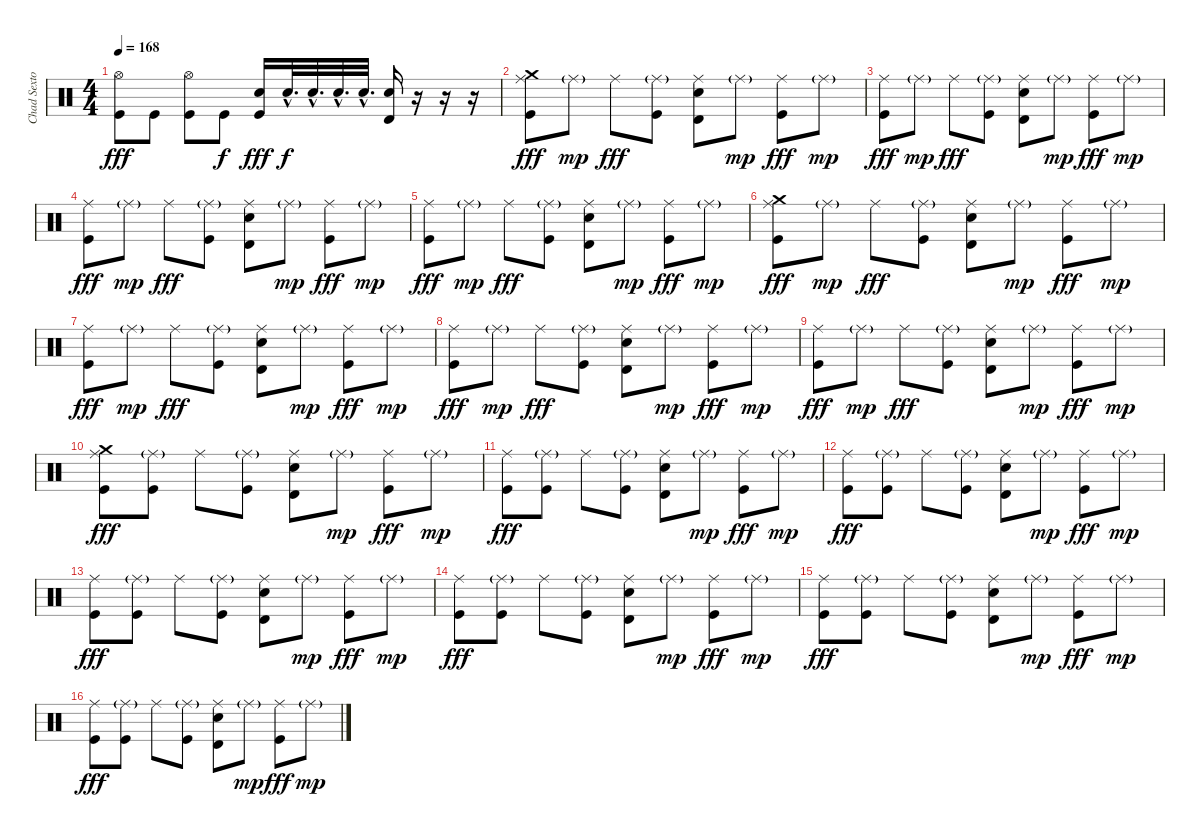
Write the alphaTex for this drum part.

\track ("Chad Sexton" "Chad Sexto") {instrument percussion}
\staff {score}
\articulation defaults
\ts (4 4)
\tempo 168
\clef neutral
\ks c
("Hi-Hat (open)" "Kick (hit)").8{dy fff} "Kick (hit)".8 ("Hi-Hat (open)" "Kick (hit)").8 "Kick (hit)".8{dy f} ("Electric Snare (hit)" "Kick (hit)").16{dy fff} "Electric Snare (hit)"{hac}.32{d dy f} "Electric Snare (hit)"{hac}.32{d} "Electric Snare (hit)"{hac}.32{d} "Electric Snare (hit)"{hac}.32{d} ("Electric Snare (hit)" "Timbale high (hit)").16 r.16 r.16 r.16 |
("Crash medium (hit)" "Ride (middle)" "Kick (hit)").8{dy fff} "Ride (middle)"{g}.8{dy mp} "Ride (middle)".8{dy fff} ("Ride (middle)"{g} "Kick (hit)").8 ("Ride (middle)" "Electric Snare (hit)" "Timbale high (hit)").8 "Ride (middle)"{g}.8{dy mp} ("Ride (middle)" "Kick (hit)").8{dy fff} "Ride (middle)"{g}.8{dy mp} |
("Ride (middle)" "Kick (hit)").8{dy fff} "Ride (middle)"{g}.8{dy mp} "Ride (middle)".8{dy fff} ("Ride (middle)"{g} "Kick (hit)").8 ("Ride (middle)" "Electric Snare (hit)" "Timbale high (hit)").8 "Ride (middle)"{g}.8{dy mp} ("Ride (middle)" "Kick (hit)").8{dy fff} "Ride (middle)"{g}.8{dy mp} |
("Ride (middle)" "Kick (hit)").8{dy fff} "Ride (middle)"{g}.8{dy mp} "Ride (middle)".8{dy fff} ("Ride (middle)"{g} "Kick (hit)").8 ("Ride (middle)" "Electric Snare (hit)" "Timbale high (hit)").8 "Ride (middle)"{g}.8{dy mp} ("Ride (middle)" "Kick (hit)").8{dy fff} "Ride (middle)"{g}.8{dy mp} |
("Ride (middle)" "Kick (hit)").8{dy fff} "Ride (middle)"{g}.8{dy mp} "Ride (middle)".8{dy fff} ("Ride (middle)"{g} "Kick (hit)").8 ("Ride (middle)" "Electric Snare (hit)" "Timbale high (hit)").8 "Ride (middle)"{g}.8{dy mp} ("Ride (middle)" "Kick (hit)").8{dy fff} "Ride (middle)"{g}.8{dy mp} |
("Crash medium (hit)" "Ride (middle)" "Kick (hit)").8{dy fff} "Ride (middle)"{g}.8{dy mp} "Ride (middle)".8{dy fff} ("Ride (middle)"{g} "Kick (hit)").8 ("Ride (middle)" "Electric Snare (hit)" "Timbale high (hit)").8 "Ride (middle)"{g}.8{dy mp} ("Ride (middle)" "Kick (hit)").8{dy fff} "Ride (middle)"{g}.8{dy mp} |
("Ride (middle)" "Kick (hit)").8{dy fff} "Ride (middle)"{g}.8{dy mp} "Ride (middle)".8{dy fff} ("Ride (middle)"{g} "Kick (hit)").8 ("Ride (middle)" "Electric Snare (hit)" "Timbale high (hit)").8 "Ride (middle)"{g}.8{dy mp} ("Ride (middle)" "Kick (hit)").8{dy fff} "Ride (middle)"{g}.8{dy mp} |
("Ride (middle)" "Kick (hit)").8{dy fff} "Ride (middle)"{g}.8{dy mp} "Ride (middle)".8{dy fff} ("Ride (middle)"{g} "Kick (hit)").8 ("Ride (middle)" "Electric Snare (hit)" "Timbale high (hit)").8 "Ride (middle)"{g}.8{dy mp} ("Ride (middle)" "Kick (hit)").8{dy fff} "Ride (middle)"{g}.8{dy mp} |
("Ride (middle)" "Kick (hit)").8{dy fff} "Ride (middle)"{g}.8{dy mp} "Ride (middle)".8{dy fff} ("Ride (middle)"{g} "Kick (hit)").8 ("Ride (middle)" "Electric Snare (hit)" "Timbale high (hit)").8 "Ride (middle)"{g}.8{dy mp} ("Ride (middle)" "Kick (hit)").8{dy fff} "Ride (middle)"{g}.8{dy mp} |
("Crash medium (hit)" "Ride (middle)" "Kick (hit)").8{dy fff} ("Ride (middle)"{g} "Kick (hit)").8 "Ride (middle)".8 ("Ride (middle)"{g} "Kick (hit)").8 ("Ride (middle)" "Electric Snare (hit)" "Timbale high (hit)").8 "Ride (middle)"{g}.8{dy mp} ("Ride (middle)" "Kick (hit)").8{dy fff} "Ride (middle)"{g}.8{dy mp} |
("Ride (middle)" "Kick (hit)").8{dy fff} ("Ride (middle)"{g} "Kick (hit)").8 "Ride (middle)".8 ("Ride (middle)"{g} "Kick (hit)").8 ("Ride (middle)" "Electric Snare (hit)" "Timbale high (hit)").8 "Ride (middle)"{g}.8{dy mp} ("Ride (middle)" "Kick (hit)").8{dy fff} "Ride (middle)"{g}.8{dy mp} |
("Ride (middle)" "Kick (hit)").8{dy fff} ("Ride (middle)"{g} "Kick (hit)").8 "Ride (middle)".8 ("Ride (middle)"{g} "Kick (hit)").8 ("Ride (middle)" "Electric Snare (hit)" "Timbale high (hit)").8 "Ride (middle)"{g}.8{dy mp} ("Ride (middle)" "Kick (hit)").8{dy fff} "Ride (middle)"{g}.8{dy mp} |
("Ride (middle)" "Kick (hit)").8{dy fff} ("Ride (middle)"{g} "Kick (hit)").8 "Ride (middle)".8 ("Ride (middle)"{g} "Kick (hit)").8 ("Ride (middle)" "Electric Snare (hit)" "Timbale high (hit)").8 "Ride (middle)"{g}.8{dy mp} ("Ride (middle)" "Kick (hit)").8{dy fff} "Ride (middle)"{g}.8{dy mp} |
("Ride (middle)" "Kick (hit)").8{dy fff} ("Ride (middle)"{g} "Kick (hit)").8 "Ride (middle)".8 ("Ride (middle)"{g} "Kick (hit)").8 ("Ride (middle)" "Electric Snare (hit)" "Timbale high (hit)").8 "Ride (middle)"{g}.8{dy mp} ("Ride (middle)" "Kick (hit)").8{dy fff} "Ride (middle)"{g}.8{dy mp} |
("Ride (middle)" "Kick (hit)").8{dy fff} ("Ride (middle)"{g} "Kick (hit)").8 "Ride (middle)".8 ("Ride (middle)"{g} "Kick (hit)").8 ("Ride (middle)" "Electric Snare (hit)" "Timbale high (hit)").8 "Ride (middle)"{g}.8{dy mp} ("Ride (middle)" "Kick (hit)").8{dy fff} "Ride (middle)"{g}.8{dy mp} |
("Ride (middle)" "Kick (hit)").8{dy fff} ("Ride (middle)"{g} "Kick (hit)").8 "Ride (middle)".8 ("Ride (middle)"{g} "Kick (hit)").8 ("Ride (middle)" "Electric Snare (hit)" "Timbale high (hit)").8 "Ride (middle)"{g}.8{dy mp} ("Ride (middle)" "Kick (hit)").8{dy fff} "Ride (middle)"{g}.8{dy mp}
